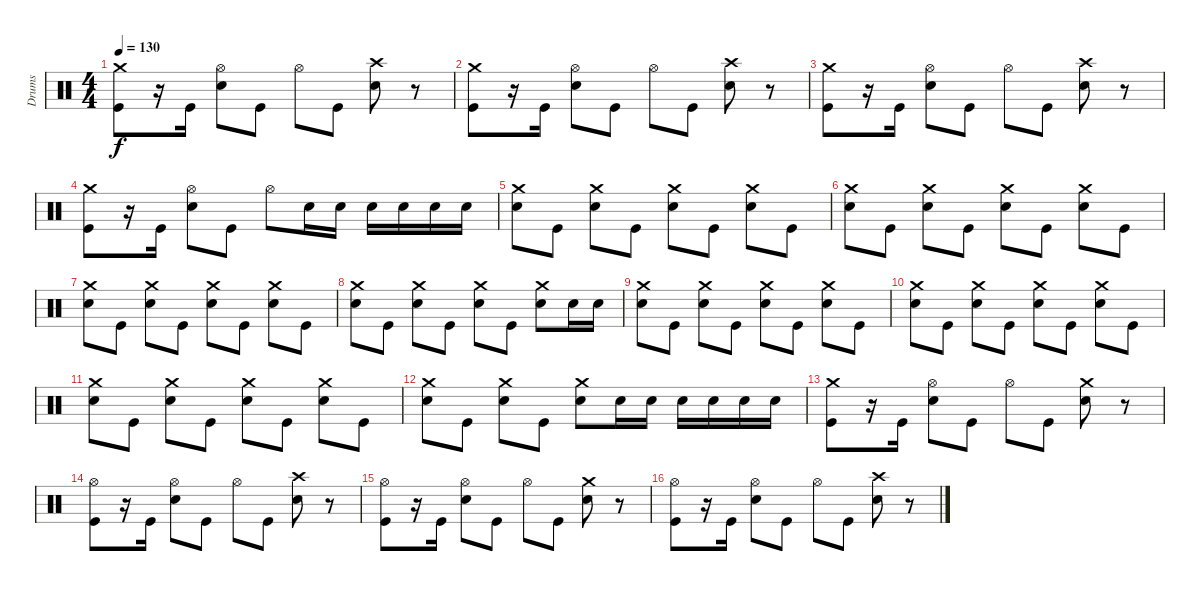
\track ("Drums" "Drums") {instrument percussion}
\staff {score}
\articulation defaults
\ts (4 4)
\tempo 130
\clef neutral
\ks c
("Crash medium (hit)" "Kick (hit)").8{dy f} r.16 "Kick (hit)".16 ("Hi-Hat (open)" "Snare (hit) 2").8 "Kick (hit)".8 "Hi-Hat (open)".8 "Kick (hit)".8 ("Crash high (hit)" "Snare (hit) 2").8 r.8 |
("Crash medium (hit)" "Kick (hit)").8 r.16 "Kick (hit)".16 ("Hi-Hat (open)" "Snare (hit) 2").8 "Kick (hit)".8 "Hi-Hat (open)".8 "Kick (hit)".8 ("Crash high (hit)" "Snare (hit) 2").8 r.8 |
("Crash medium (hit)" "Kick (hit)").8 r.16 "Kick (hit)".16 ("Hi-Hat (open)" "Snare (hit) 2").8 "Kick (hit)".8 "Hi-Hat (open)".8 "Kick (hit)".8 ("Crash high (hit)" "Snare (hit) 2").8 r.8 |
("Crash medium (hit)" "Kick (hit)").8 r.16 "Kick (hit)".16 ("Hi-Hat (open)" "Snare (hit) 2").8 "Kick (hit)".8 "Hi-Hat (open)".8 "Snare (hit) 2".16 "Snare (hit) 2".16 "Snare (hit) 2".16 "Snare (hit) 2".16 "Snare (hit) 2".16 "Snare (hit) 2".16 |
("Crash medium (hit)" "Snare (hit) 2").8 "Kick (hit)".8 ("Crash medium (hit)" "Snare (hit) 2").8 "Kick (hit)".8 ("Crash medium (hit)" "Snare (hit) 2").8 "Kick (hit)".8 ("Crash medium (hit)" "Snare (hit) 2").8 "Kick (hit)".8 |
("Crash medium (hit)" "Snare (hit) 2").8 "Kick (hit)".8 ("Crash medium (hit)" "Snare (hit) 2").8 "Kick (hit)".8 ("Crash medium (hit)" "Snare (hit) 2").8 "Kick (hit)".8 ("Crash medium (hit)" "Snare (hit) 2").8 "Kick (hit)".8 |
("Crash medium (hit)" "Snare (hit) 2").8 "Kick (hit)".8 ("Crash medium (hit)" "Snare (hit) 2").8 "Kick (hit)".8 ("Crash medium (hit)" "Snare (hit) 2").8 "Kick (hit)".8 ("Crash medium (hit)" "Snare (hit) 2").8 "Kick (hit)".8 |
("Crash medium (hit)" "Snare (hit) 2").8 "Kick (hit)".8 ("Crash medium (hit)" "Snare (hit) 2").8 "Kick (hit)".8 ("Crash medium (hit)" "Snare (hit) 2").8 "Kick (hit)".8 ("Crash medium (hit)" "Snare (hit) 2").8 "Snare (hit) 2".16 "Snare (hit) 2".16 |
("Crash medium (hit)" "Snare (hit) 2").8 "Kick (hit)".8 ("Crash medium (hit)" "Snare (hit) 2").8 "Kick (hit)".8 ("Crash medium (hit)" "Snare (hit) 2").8 "Kick (hit)".8 ("Crash medium (hit)" "Snare (hit) 2").8 "Kick (hit)".8 |
("Crash medium (hit)" "Snare (hit) 2").8 "Kick (hit)".8 ("Crash medium (hit)" "Snare (hit) 2").8 "Kick (hit)".8 ("Crash medium (hit)" "Snare (hit) 2").8 "Kick (hit)".8 ("Crash medium (hit)" "Snare (hit) 2").8 "Kick (hit)".8 |
("Crash medium (hit)" "Snare (hit) 2").8 "Kick (hit)".8 ("Crash medium (hit)" "Snare (hit) 2").8 "Kick (hit)".8 ("Crash medium (hit)" "Snare (hit) 2").8 "Kick (hit)".8 ("Crash medium (hit)" "Snare (hit) 2").8 "Kick (hit)".8 |
("Crash medium (hit)" "Snare (hit) 2").8 "Kick (hit)".8 ("Crash medium (hit)" "Snare (hit) 2").8 "Kick (hit)".8 ("Crash medium (hit)" "Snare (hit) 2").8 "Snare (hit) 2".16 "Snare (hit) 2".16 "Snare (hit) 2".16 "Snare (hit) 2".16 "Snare (hit) 2".16 "Snare (hit) 2".16 |
("Crash medium (hit)" "Kick (hit)").8 r.16 "Kick (hit)".16 ("Hi-Hat (open)" "Snare (hit) 2").8 "Kick (hit)".8 "Hi-Hat (open)".8 "Kick (hit)".8 ("Crash medium (hit)" "Snare (hit) 2").8 r.8 |
("Hi-Hat (open)" "Kick (hit)").8 r.16 "Kick (hit)".16 ("Hi-Hat (open)" "Snare (hit) 2").8 "Kick (hit)".8 "Hi-Hat (open)".8 "Kick (hit)".8 ("Crash high (hit)" "Snare (hit) 2").8 r.8 |
("Hi-Hat (open)" "Kick (hit)").8 r.16 "Kick (hit)".16 ("Hi-Hat (open)" "Snare (hit) 2").8 "Kick (hit)".8 "Hi-Hat (open)".8 "Kick (hit)".8 ("Crash medium (hit)" "Snare (hit) 2").8 r.8 |
("Hi-Hat (open)" "Kick (hit)").8 r.16 "Kick (hit)".16 ("Hi-Hat (open)" "Snare (hit) 2").8 "Kick (hit)".8 "Hi-Hat (open)".8 "Kick (hit)".8 ("Crash high (hit)" "Snare (hit) 2").8 r.8
